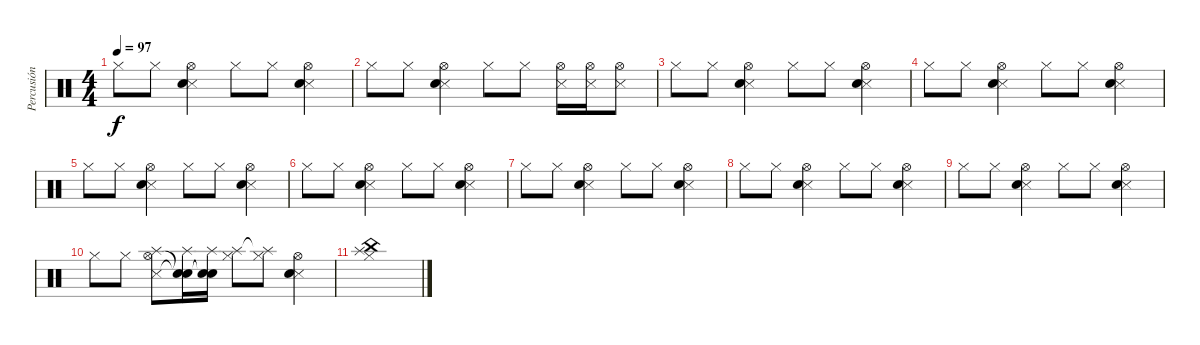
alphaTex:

\track ("Percusión" "Percusión") {instrument percussion}
\staff {score}
\articulation defaults
\ts (4 4)
\tempo 97
\clef neutral
\ks c "Hi-Hat (closed)".8{dy f} "Hi-Hat (closed)".8
("Hi-Hat (open)" "Snare (side stick) 3" "Electric Snare (hit)").4 "Hi-Hat (closed)".8 "Hi-Hat (closed)".8 ("Hi-Hat (open)" "Snare (side stick) 3" "Electric Snare (hit)").4 |
"Hi-Hat (closed)".8 "Hi-Hat (closed)".8 ("Hi-Hat (open)" "Snare (side stick) 3" "Electric Snare (hit)").4 "Hi-Hat (closed)".8 "Hi-Hat (closed)".8 ("Hi-Hat (open)" "Snare (side stick) 3").16 ("Hi-Hat (open)" "Snare (side stick) 3").16 ("Hi-Hat (open)" "Snare (side stick) 3").8 |
"Hi-Hat (closed)".8 "Hi-Hat (closed)".8 ("Hi-Hat (open)" "Snare (side stick) 3" "Electric Snare (hit)").4 "Hi-Hat (closed)".8 "Hi-Hat (closed)".8 ("Hi-Hat (open)" "Snare (side stick) 3" "Electric Snare (hit)").4 |
"Hi-Hat (closed)".8 "Hi-Hat (closed)".8 ("Hi-Hat (open)" "Snare (side stick) 3" "Electric Snare (hit)").4 "Hi-Hat (closed)".8 "Hi-Hat (closed)".8 ("Hi-Hat (open)" "Snare (side stick) 3" "Electric Snare (hit)").4 |
"Hi-Hat (closed)".8 "Hi-Hat (closed)".8 ("Hi-Hat (open)" "Snare (side stick) 3" "Electric Snare (hit)").4 "Hi-Hat (closed)".8 "Hi-Hat (closed)".8 ("Hi-Hat (open)" "Snare (side stick) 3" "Electric Snare (hit)").4 |
"Hi-Hat (closed)".8 "Hi-Hat (closed)".8 ("Hi-Hat (open)" "Snare (side stick) 3" "Electric Snare (hit)").4 "Hi-Hat (closed)".8 "Hi-Hat (closed)".8 ("Hi-Hat (open)" "Snare (side stick) 3" "Electric Snare (hit)").4 |
"Hi-Hat (closed)".8 "Hi-Hat (closed)".8 ("Hi-Hat (open)" "Snare (side stick) 3" "Electric Snare (hit)").4 "Hi-Hat (closed)".8 "Hi-Hat (closed)".8 ("Hi-Hat (open)" "Snare (side stick) 3" "Electric Snare (hit)").4 |
"Hi-Hat (closed)".8 "Hi-Hat (closed)".8 ("Hi-Hat (open)" "Snare (side stick) 3" "Electric Snare (hit)").4 "Hi-Hat (closed)".8 "Hi-Hat (closed)".8 ("Hi-Hat (open)" "Snare (side stick) 3" "Electric Snare (hit)").4 |
"Hi-Hat (closed)".8 "Hi-Hat (closed)".8 ("Hi-Hat (open)" "Snare (side stick) 3" "Electric Snare (hit)").4 "Hi-Hat (closed)".8 "Hi-Hat (closed)".8 ("Hi-Hat (open)" "Snare (side stick) 3" "Electric Snare (hit)").4 |
"Hi-Hat (closed)".8 "Hi-Hat (closed)".8 ("Hi-Hat (open)" "Snare (side stick) 3" "Splash (hit)").8 ("Snare (hit)"{t} "Snare (hit)"{t} "Splash (hit)").16 ("Snare (hit)"{t} "Snare (hit)"{t} "Splash (hit)").16 ("Hi-Hat (closed)" "Splash (hit)").8 ("Hi-Hat (closed)" "Splash (hit)"{t}).8 ("Hi-Hat (open)" "Snare (side stick) 3" "Electric Snare (hit)").4 |
("Hi-Hat (closed)" "China (hit)" "Splash (hit)").1
